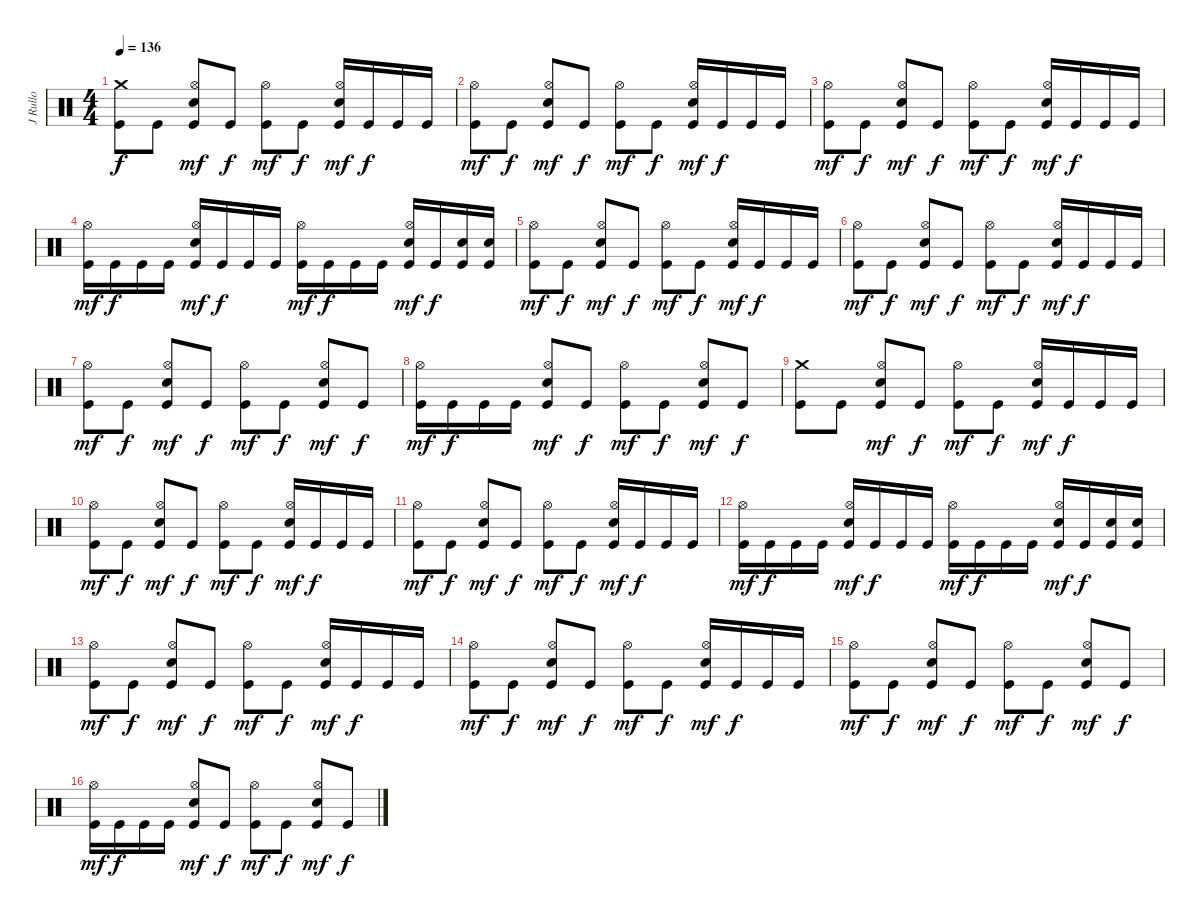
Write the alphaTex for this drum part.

\track ("J Rullo" "J Rullo") {instrument percussion}
\staff {score}
\articulation defaults
\ts (4 4)
\tempo 136
\clef neutral
\ks c
("Crash medium (hit)" "Kick (hit)").8{dy f} "Kick (hit)".8 ("Hi-Hat (open)" "Electric Snare (hit)" "Kick (hit)").8{dy mf} "Kick (hit)".8{dy f} ("Hi-Hat (open)" "Kick (hit)").8{dy mf} "Kick (hit)".8{dy f} ("Hi-Hat (open)" "Electric Snare (hit)" "Kick (hit)").16{dy mf} "Kick (hit)".16{dy f} "Kick (hit)".16 "Kick (hit)".16 |
("Hi-Hat (open)" "Kick (hit)").8{dy mf} "Kick (hit)".8{dy f} ("Hi-Hat (open)" "Electric Snare (hit)" "Kick (hit)").8{dy mf} "Kick (hit)".8{dy f} ("Hi-Hat (open)" "Kick (hit)").8{dy mf} "Kick (hit)".8{dy f} ("Hi-Hat (open)" "Electric Snare (hit)" "Kick (hit)").16{dy mf} "Kick (hit)".16{dy f} "Kick (hit)".16 "Kick (hit)".16 |
("Hi-Hat (open)" "Kick (hit)").8{dy mf} "Kick (hit)".8{dy f} ("Hi-Hat (open)" "Electric Snare (hit)" "Kick (hit)").8{dy mf} "Kick (hit)".8{dy f} ("Hi-Hat (open)" "Kick (hit)").8{dy mf} "Kick (hit)".8{dy f} ("Hi-Hat (open)" "Electric Snare (hit)" "Kick (hit)").16{dy mf} "Kick (hit)".16{dy f} "Kick (hit)".16 "Kick (hit)".16 |
("Hi-Hat (open)" "Kick (hit)").16{dy mf} "Kick (hit)".16{dy f} "Kick (hit)".16 "Kick (hit)".16 ("Hi-Hat (open)" "Electric Snare (hit)" "Kick (hit)").16{dy mf} "Kick (hit)".16{dy f} "Kick (hit)".16 "Kick (hit)".16 ("Hi-Hat (open)" "Kick (hit)").16{dy mf} "Kick (hit)".16{dy f} "Kick (hit)".16 "Kick (hit)".16 ("Hi-Hat (open)" "Electric Snare (hit)" "Kick (hit)").16{dy mf} "Kick (hit)".16{dy f} ("Electric Snare (hit)" "Kick (hit)").16 ("Electric Snare (hit)" "Kick (hit)").16 |
("Hi-Hat (open)" "Kick (hit)").8{dy mf} "Kick (hit)".8{dy f} ("Hi-Hat (open)" "Electric Snare (hit)" "Kick (hit)").8{dy mf} "Kick (hit)".8{dy f} ("Hi-Hat (open)" "Kick (hit)").8{dy mf} "Kick (hit)".8{dy f} ("Hi-Hat (open)" "Electric Snare (hit)" "Kick (hit)").16{dy mf} "Kick (hit)".16{dy f} "Kick (hit)".16 "Kick (hit)".16 |
("Hi-Hat (open)" "Kick (hit)").8{dy mf} "Kick (hit)".8{dy f} ("Hi-Hat (open)" "Electric Snare (hit)" "Kick (hit)").8{dy mf} "Kick (hit)".8{dy f} ("Hi-Hat (open)" "Kick (hit)").8{dy mf} "Kick (hit)".8{dy f} ("Hi-Hat (open)" "Electric Snare (hit)" "Kick (hit)").16{dy mf} "Kick (hit)".16{dy f} "Kick (hit)".16 "Kick (hit)".16 |
("Hi-Hat (open)" "Kick (hit)").8{dy mf} "Kick (hit)".8{dy f} ("Hi-Hat (open)" "Electric Snare (hit)" "Kick (hit)").8{dy mf} "Kick (hit)".8{dy f} ("Hi-Hat (open)" "Kick (hit)").8{dy mf} "Kick (hit)".8{dy f} ("Hi-Hat (open)" "Electric Snare (hit)" "Kick (hit)").8{dy mf} "Kick (hit)".8{dy f} |
("Hi-Hat (open)" "Kick (hit)").16{dy mf} "Kick (hit)".16{dy f} "Kick (hit)".16 "Kick (hit)".16 ("Hi-Hat (open)" "Electric Snare (hit)" "Kick (hit)").8{dy mf} "Kick (hit)".8{dy f} ("Hi-Hat (open)" "Kick (hit)").8{dy mf} "Kick (hit)".8{dy f} ("Hi-Hat (open)" "Electric Snare (hit)" "Kick (hit)").8{dy mf} "Kick (hit)".8{dy f} |
("Crash medium (hit)" "Kick (hit)").8 "Kick (hit)".8 ("Hi-Hat (open)" "Electric Snare (hit)" "Kick (hit)").8{dy mf} "Kick (hit)".8{dy f} ("Hi-Hat (open)" "Kick (hit)").8{dy mf} "Kick (hit)".8{dy f} ("Hi-Hat (open)" "Electric Snare (hit)" "Kick (hit)").16{dy mf} "Kick (hit)".16{dy f} "Kick (hit)".16 "Kick (hit)".16 |
("Hi-Hat (open)" "Kick (hit)").8{dy mf} "Kick (hit)".8{dy f} ("Hi-Hat (open)" "Electric Snare (hit)" "Kick (hit)").8{dy mf} "Kick (hit)".8{dy f} ("Hi-Hat (open)" "Kick (hit)").8{dy mf} "Kick (hit)".8{dy f} ("Hi-Hat (open)" "Electric Snare (hit)" "Kick (hit)").16{dy mf} "Kick (hit)".16{dy f} "Kick (hit)".16 "Kick (hit)".16 |
("Hi-Hat (open)" "Kick (hit)").8{dy mf} "Kick (hit)".8{dy f} ("Hi-Hat (open)" "Electric Snare (hit)" "Kick (hit)").8{dy mf} "Kick (hit)".8{dy f} ("Hi-Hat (open)" "Kick (hit)").8{dy mf} "Kick (hit)".8{dy f} ("Hi-Hat (open)" "Electric Snare (hit)" "Kick (hit)").16{dy mf} "Kick (hit)".16{dy f} "Kick (hit)".16 "Kick (hit)".16 |
("Hi-Hat (open)" "Kick (hit)").16{dy mf} "Kick (hit)".16{dy f} "Kick (hit)".16 "Kick (hit)".16 ("Hi-Hat (open)" "Electric Snare (hit)" "Kick (hit)").16{dy mf} "Kick (hit)".16{dy f} "Kick (hit)".16 "Kick (hit)".16 ("Hi-Hat (open)" "Kick (hit)").16{dy mf} "Kick (hit)".16{dy f} "Kick (hit)".16 "Kick (hit)".16 ("Hi-Hat (open)" "Electric Snare (hit)" "Kick (hit)").16{dy mf} "Kick (hit)".16{dy f} ("Electric Snare (hit)" "Kick (hit)").16 ("Electric Snare (hit)" "Kick (hit)").16 |
("Hi-Hat (open)" "Kick (hit)").8{dy mf} "Kick (hit)".8{dy f} ("Hi-Hat (open)" "Electric Snare (hit)" "Kick (hit)").8{dy mf} "Kick (hit)".8{dy f} ("Hi-Hat (open)" "Kick (hit)").8{dy mf} "Kick (hit)".8{dy f} ("Hi-Hat (open)" "Electric Snare (hit)" "Kick (hit)").16{dy mf} "Kick (hit)".16{dy f} "Kick (hit)".16 "Kick (hit)".16 |
("Hi-Hat (open)" "Kick (hit)").8{dy mf} "Kick (hit)".8{dy f} ("Hi-Hat (open)" "Electric Snare (hit)" "Kick (hit)").8{dy mf} "Kick (hit)".8{dy f} ("Hi-Hat (open)" "Kick (hit)").8{dy mf} "Kick (hit)".8{dy f} ("Hi-Hat (open)" "Electric Snare (hit)" "Kick (hit)").16{dy mf} "Kick (hit)".16{dy f} "Kick (hit)".16 "Kick (hit)".16 |
("Hi-Hat (open)" "Kick (hit)").8{dy mf} "Kick (hit)".8{dy f} ("Hi-Hat (open)" "Electric Snare (hit)" "Kick (hit)").8{dy mf} "Kick (hit)".8{dy f} ("Hi-Hat (open)" "Kick (hit)").8{dy mf} "Kick (hit)".8{dy f} ("Hi-Hat (open)" "Electric Snare (hit)" "Kick (hit)").8{dy mf} "Kick (hit)".8{dy f} |
("Hi-Hat (open)" "Kick (hit)").16{dy mf} "Kick (hit)".16{dy f} "Kick (hit)".16 "Kick (hit)".16 ("Hi-Hat (open)" "Electric Snare (hit)" "Kick (hit)").8{dy mf} "Kick (hit)".8{dy f} ("Hi-Hat (open)" "Kick (hit)").8{dy mf} "Kick (hit)".8{dy f} ("Hi-Hat (open)" "Electric Snare (hit)" "Kick (hit)").8{dy mf} "Kick (hit)".8{dy f}
